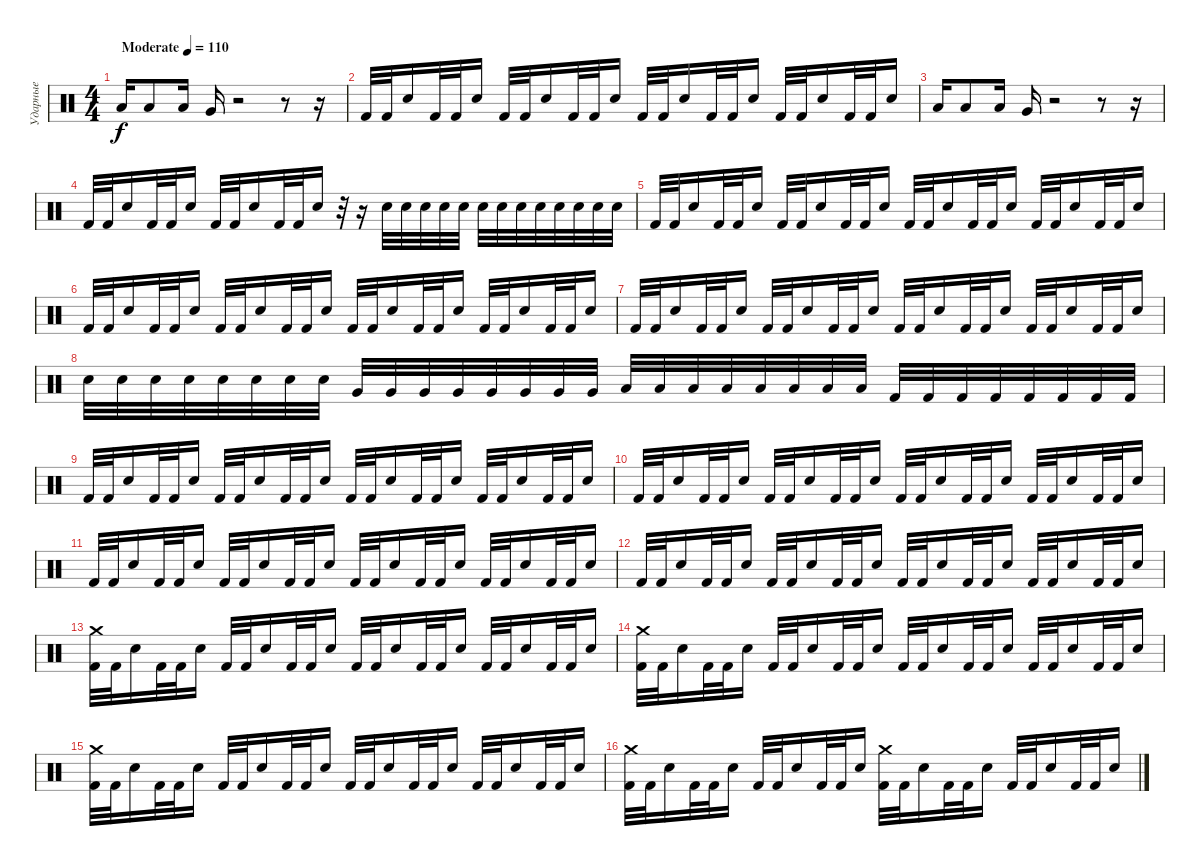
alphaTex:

\track ("Ударные" "Ударные") {instrument percussion}
\staff {score}
\articulation defaults
\ts (4 4)
\tempo (110 "Moderate")
\clef neutral
\ks c "Low Floor Tom (hit)".16{dy f} "Low Floor Tom (hit)".8 "Low Floor Tom (hit)".16 "Very Low Tom (hit)".16
r.2 r.8 r.16 |
"Kick (hit) 2".32 "Kick (hit) 2".32 "Snare (hit) 2".16 "Kick (hit) 2".32 "Kick (hit) 2".32 "Snare (hit) 2".16 "Kick (hit) 2".32 "Kick (hit) 2".32 "Snare (hit) 2".16 "Kick (hit) 2".32 "Kick (hit) 2".32 "Snare (hit) 2".16 "Kick (hit) 2".32 "Kick (hit) 2".32 "Snare (hit) 2".16 "Kick (hit) 2".32 "Kick (hit) 2".32 "Snare (hit) 2".16 "Kick (hit) 2".32 "Kick (hit) 2".32 "Snare (hit) 2".16 "Kick (hit) 2".32 "Kick (hit) 2".32 "Snare (hit) 2".16 |
"Low Floor Tom (hit)".16 "Low Floor Tom (hit)".8 "Low Floor Tom (hit)".16 "Very Low Tom (hit)".16 r.2 r.8 r.16 |
"Kick (hit) 2".32 "Kick (hit) 2".32 "Snare (hit) 2".16 "Kick (hit) 2".32 "Kick (hit) 2".32 "Snare (hit) 2".16 "Kick (hit) 2".32 "Kick (hit) 2".32 "Snare (hit) 2".16 "Kick (hit) 2".32 "Kick (hit) 2".32 "Snare (hit) 2".16 r.32 r.16 "Snare (hit) 2".32 "Snare (hit) 2".32 "Snare (hit) 2".32 "Snare (hit) 2".32 "Snare (hit) 2".32 "Snare (hit) 2".32 "Snare (hit) 2".32 "Snare (hit) 2".32 "Snare (hit) 2".32 "Snare (hit) 2".32 "Snare (hit) 2".32 "Snare (hit) 2".32 "Snare (hit) 2".32 |
"Kick (hit) 2".32 "Kick (hit) 2".32 "Snare (hit) 2".16 "Kick (hit) 2".32 "Kick (hit) 2".32 "Snare (hit) 2".16 "Kick (hit) 2".32 "Kick (hit) 2".32 "Snare (hit) 2".16 "Kick (hit) 2".32 "Kick (hit) 2".32 "Snare (hit) 2".16 "Kick (hit) 2".32 "Kick (hit) 2".32 "Snare (hit) 2".16 "Kick (hit) 2".32 "Kick (hit) 2".32 "Snare (hit) 2".16 "Kick (hit) 2".32 "Kick (hit) 2".32 "Snare (hit) 2".16 "Kick (hit) 2".32 "Kick (hit) 2".32 "Snare (hit) 2".16 |
"Kick (hit) 2".32 "Kick (hit) 2".32 "Snare (hit) 2".16 "Kick (hit) 2".32 "Kick (hit) 2".32 "Snare (hit) 2".16 "Kick (hit) 2".32 "Kick (hit) 2".32 "Snare (hit) 2".16 "Kick (hit) 2".32 "Kick (hit) 2".32 "Snare (hit) 2".16 "Kick (hit) 2".32 "Kick (hit) 2".32 "Snare (hit) 2".16 "Kick (hit) 2".32 "Kick (hit) 2".32 "Snare (hit) 2".16 "Kick (hit) 2".32 "Kick (hit) 2".32 "Snare (hit) 2".16 "Kick (hit) 2".32 "Kick (hit) 2".32 "Snare (hit) 2".16 |
"Kick (hit) 2".32 "Kick (hit) 2".32 "Snare (hit) 2".16 "Kick (hit) 2".32 "Kick (hit) 2".32 "Snare (hit) 2".16 "Kick (hit) 2".32 "Kick (hit) 2".32 "Snare (hit) 2".16 "Kick (hit) 2".32 "Kick (hit) 2".32 "Snare (hit) 2".16 "Kick (hit) 2".32 "Kick (hit) 2".32 "Snare (hit) 2".16 "Kick (hit) 2".32 "Kick (hit) 2".32 "Snare (hit) 2".16 "Kick (hit) 2".32 "Kick (hit) 2".32 "Snare (hit) 2".16 "Kick (hit) 2".32 "Kick (hit) 2".32 "Snare (hit) 2".16 |
"Snare (hit) 2".32 "Snare (hit) 2".32 "Snare (hit) 2".32 "Snare (hit) 2".32 "Snare (hit) 2".32 "Snare (hit) 2".32 "Snare (hit) 2".32 "Snare (hit) 2".32 "Very Low Tom (hit)".32 "Very Low Tom (hit)".32 "Very Low Tom (hit)".32 "Very Low Tom (hit)".32 "Very Low Tom (hit)".32 "Very Low Tom (hit)".32 "Very Low Tom (hit)".32 "Very Low Tom (hit)".32 "Low Floor Tom (hit)".32 "Low Floor Tom (hit)".32 "Low Floor Tom (hit)".32 "Low Floor Tom (hit)".32 "Low Floor Tom (hit)".32 "Low Floor Tom (hit)".32 "Low Floor Tom (hit)".32 "Low Floor Tom (hit)".32 "Kick (hit) 2".32 "Kick (hit) 2".32 "Kick (hit) 2".32 "Kick (hit) 2".32 "Kick (hit) 2".32 "Kick (hit) 2".32 "Kick (hit) 2".32 "Kick (hit) 2".32 |
"Kick (hit) 2".32 "Kick (hit) 2".32 "Snare (hit) 2".16 "Kick (hit) 2".32 "Kick (hit) 2".32 "Snare (hit) 2".16 "Kick (hit) 2".32 "Kick (hit) 2".32 "Snare (hit) 2".16 "Kick (hit) 2".32 "Kick (hit) 2".32 "Snare (hit) 2".16 "Kick (hit) 2".32 "Kick (hit) 2".32 "Snare (hit) 2".16 "Kick (hit) 2".32 "Kick (hit) 2".32 "Snare (hit) 2".16 "Kick (hit) 2".32 "Kick (hit) 2".32 "Snare (hit) 2".16 "Kick (hit) 2".32 "Kick (hit) 2".32 "Snare (hit) 2".16 |
"Kick (hit) 2".32 "Kick (hit) 2".32 "Snare (hit) 2".16 "Kick (hit) 2".32 "Kick (hit) 2".32 "Snare (hit) 2".16 "Kick (hit) 2".32 "Kick (hit) 2".32 "Snare (hit) 2".16 "Kick (hit) 2".32 "Kick (hit) 2".32 "Snare (hit) 2".16 "Kick (hit) 2".32 "Kick (hit) 2".32 "Snare (hit) 2".16 "Kick (hit) 2".32 "Kick (hit) 2".32 "Snare (hit) 2".16 "Kick (hit) 2".32 "Kick (hit) 2".32 "Snare (hit) 2".16 "Kick (hit) 2".32 "Kick (hit) 2".32 "Snare (hit) 2".16 |
"Kick (hit) 2".32 "Kick (hit) 2".32 "Snare (hit) 2".16 "Kick (hit) 2".32 "Kick (hit) 2".32 "Snare (hit) 2".16 "Kick (hit) 2".32 "Kick (hit) 2".32 "Snare (hit) 2".16 "Kick (hit) 2".32 "Kick (hit) 2".32 "Snare (hit) 2".16 "Kick (hit) 2".32 "Kick (hit) 2".32 "Snare (hit) 2".16 "Kick (hit) 2".32 "Kick (hit) 2".32 "Snare (hit) 2".16 "Kick (hit) 2".32 "Kick (hit) 2".32 "Snare (hit) 2".16 "Kick (hit) 2".32 "Kick (hit) 2".32 "Snare (hit) 2".16 |
"Kick (hit) 2".32 "Kick (hit) 2".32 "Snare (hit) 2".16 "Kick (hit) 2".32 "Kick (hit) 2".32 "Snare (hit) 2".16 "Kick (hit) 2".32 "Kick (hit) 2".32 "Snare (hit) 2".16 "Kick (hit) 2".32 "Kick (hit) 2".32 "Snare (hit) 2".16 "Kick (hit) 2".32 "Kick (hit) 2".32 "Snare (hit) 2".16 "Kick (hit) 2".32 "Kick (hit) 2".32 "Snare (hit) 2".16 "Kick (hit) 2".32 "Kick (hit) 2".32 "Snare (hit) 2".16 "Kick (hit) 2".32 "Kick (hit) 2".32 "Snare (hit) 2".16 |
("Kick (hit) 2" "Crash medium (hit)").32 "Kick (hit) 2".32 "Snare (hit) 2".16 "Kick (hit) 2".32 "Kick (hit) 2".32 "Snare (hit) 2".16 "Kick (hit) 2".32 "Kick (hit) 2".32 "Snare (hit) 2".16 "Kick (hit) 2".32 "Kick (hit) 2".32 "Snare (hit) 2".16 "Kick (hit) 2".32 "Kick (hit) 2".32 "Snare (hit) 2".16 "Kick (hit) 2".32 "Kick (hit) 2".32 "Snare (hit) 2".16 "Kick (hit) 2".32 "Kick (hit) 2".32 "Snare (hit) 2".16 "Kick (hit) 2".32 "Kick (hit) 2".32 "Snare (hit) 2".16 |
("Kick (hit) 2" "Crash medium (hit)").32 "Kick (hit) 2".32 "Snare (hit) 2".16 "Kick (hit) 2".32 "Kick (hit) 2".32 "Snare (hit) 2".16 "Kick (hit) 2".32 "Kick (hit) 2".32 "Snare (hit) 2".16 "Kick (hit) 2".32 "Kick (hit) 2".32 "Snare (hit) 2".16 "Kick (hit) 2".32 "Kick (hit) 2".32 "Snare (hit) 2".16 "Kick (hit) 2".32 "Kick (hit) 2".32 "Snare (hit) 2".16 "Kick (hit) 2".32 "Kick (hit) 2".32 "Snare (hit) 2".16 "Kick (hit) 2".32 "Kick (hit) 2".32 "Snare (hit) 2".16 |
("Kick (hit) 2" "Crash medium (hit)").32 "Kick (hit) 2".32 "Snare (hit) 2".16 "Kick (hit) 2".32 "Kick (hit) 2".32 "Snare (hit) 2".16 "Kick (hit) 2".32 "Kick (hit) 2".32 "Snare (hit) 2".16 "Kick (hit) 2".32 "Kick (hit) 2".32 "Snare (hit) 2".16 "Kick (hit) 2".32 "Kick (hit) 2".32 "Snare (hit) 2".16 "Kick (hit) 2".32 "Kick (hit) 2".32 "Snare (hit) 2".16 "Kick (hit) 2".32 "Kick (hit) 2".32 "Snare (hit) 2".16 "Kick (hit) 2".32 "Kick (hit) 2".32 "Snare (hit) 2".16 |
("Kick (hit) 2" "Crash medium (hit)").32 "Kick (hit) 2".32 "Snare (hit) 2".16 "Kick (hit) 2".32 "Kick (hit) 2".32 "Snare (hit) 2".16 "Kick (hit) 2".32 "Kick (hit) 2".32 "Snare (hit) 2".16 "Kick (hit) 2".32 "Kick (hit) 2".32 "Snare (hit) 2".16 ("Kick (hit) 2" "Crash medium (hit)").32 "Kick (hit) 2".32 "Snare (hit) 2".16 "Kick (hit) 2".32 "Kick (hit) 2".32 "Snare (hit) 2".16 "Kick (hit) 2".32 "Kick (hit) 2".32 "Snare (hit) 2".16 "Kick (hit) 2".32 "Kick (hit) 2".32 "Snare (hit) 2".16
